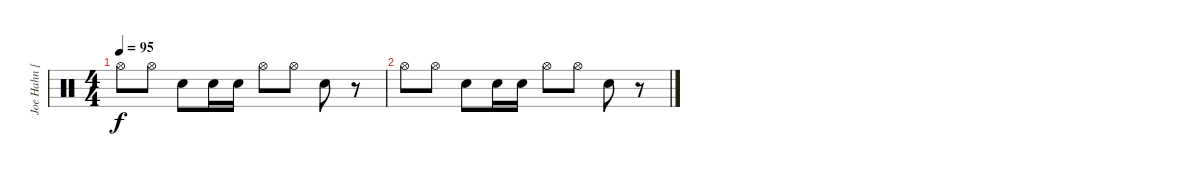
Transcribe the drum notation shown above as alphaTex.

\track ("Joe Hahn [3]" "Joe Hahn [") {instrument percussion}
\staff {score}
\articulation defaults
\ts (4 4)
\tempo 95
\clef neutral
\ks c "Hi-Hat (open)".8{dy f} "Hi-Hat (open)".8 "Hand Clap (hit)".8 "Hand Clap (hit)".16 "Hand Clap (hit)".16 "Hi-Hat (open)".8 "Hi-Hat (open)".8 "Hand Clap (hit)".8
r.8 |
"Hi-Hat (open)".8 "Hi-Hat (open)".8 "Hand Clap (hit)".8 "Hand Clap (hit)".16 "Hand Clap (hit)".16 "Hi-Hat (open)".8 "Hi-Hat (open)".8 "Hand Clap (hit)".8 r.8
